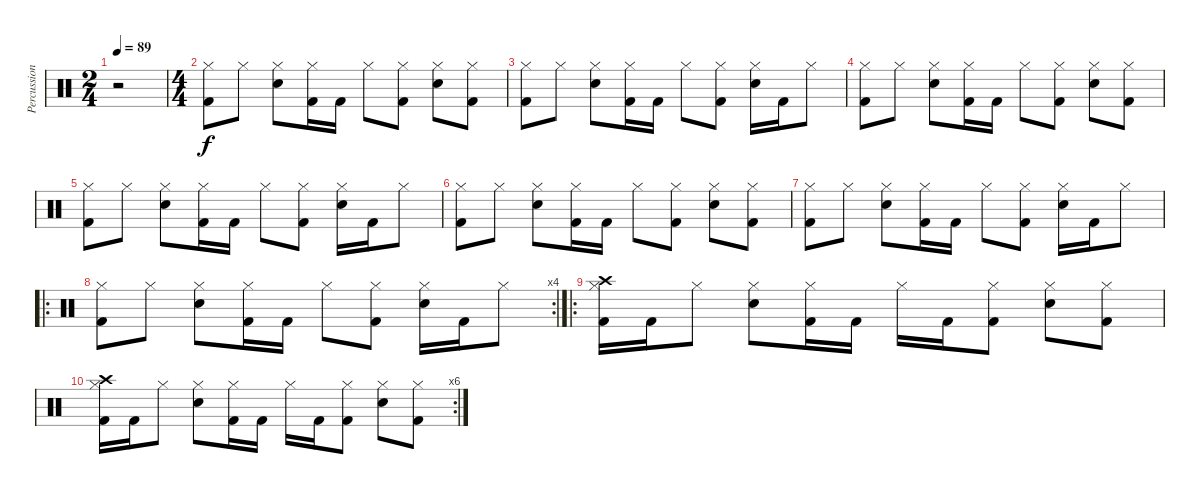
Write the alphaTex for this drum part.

\track ("Percussion" "Percussion") {instrument percussion}
\staff {score}
\articulation defaults
\ts (2 4)
\tempo 89
\clef neutral
\ks c
r.2{dy f} |
\ts (4 4)
("Hi-Hat (closed)" "Kick (hit) 2").8 "Hi-Hat (closed)".8 ("Hi-Hat (closed)" "Electric Snare (hit)").8 ("Hi-Hat (closed)" "Kick (hit) 2").16 "Kick (hit) 2".16 "Hi-Hat (closed)".8 ("Hi-Hat (closed)" "Kick (hit) 2").8 ("Hi-Hat (closed)" "Electric Snare (hit)").8 ("Hi-Hat (closed)" "Kick (hit) 2").8 |
("Hi-Hat (closed)" "Kick (hit) 2").8 "Hi-Hat (closed)".8 ("Hi-Hat (closed)" "Electric Snare (hit)").8 ("Hi-Hat (closed)" "Kick (hit) 2").16 "Kick (hit) 2".16 "Hi-Hat (closed)".8 ("Hi-Hat (closed)" "Kick (hit) 2").8 ("Hi-Hat (closed)" "Electric Snare (hit)").16 "Kick (hit) 2".16 "Hi-Hat (closed)".8 |
("Hi-Hat (closed)" "Kick (hit) 2").8 "Hi-Hat (closed)".8 ("Hi-Hat (closed)" "Electric Snare (hit)").8 ("Hi-Hat (closed)" "Kick (hit) 2").16 "Kick (hit) 2".16 "Hi-Hat (closed)".8 ("Hi-Hat (closed)" "Kick (hit) 2").8 ("Hi-Hat (closed)" "Electric Snare (hit)").8 ("Hi-Hat (closed)" "Kick (hit) 2").8 |
("Hi-Hat (closed)" "Kick (hit) 2").8 "Hi-Hat (closed)".8 ("Hi-Hat (closed)" "Electric Snare (hit)").8 ("Hi-Hat (closed)" "Kick (hit) 2").16 "Kick (hit) 2".16 "Hi-Hat (closed)".8 ("Hi-Hat (closed)" "Kick (hit) 2").8 ("Hi-Hat (closed)" "Electric Snare (hit)").16 "Kick (hit) 2".16 "Hi-Hat (closed)".8 |
("Hi-Hat (closed)" "Kick (hit) 2").8 "Hi-Hat (closed)".8 ("Hi-Hat (closed)" "Electric Snare (hit)").8 ("Hi-Hat (closed)" "Kick (hit) 2").16 "Kick (hit) 2".16 "Hi-Hat (closed)".8 ("Hi-Hat (closed)" "Kick (hit) 2").8 ("Hi-Hat (closed)" "Electric Snare (hit)").8 ("Hi-Hat (closed)" "Kick (hit) 2").8 |
("Hi-Hat (closed)" "Kick (hit) 2").8 "Hi-Hat (closed)".8 ("Hi-Hat (closed)" "Electric Snare (hit)").8 ("Hi-Hat (closed)" "Kick (hit) 2").16 "Kick (hit) 2".16 "Hi-Hat (closed)".8 ("Hi-Hat (closed)" "Kick (hit) 2").8 ("Hi-Hat (closed)" "Electric Snare (hit)").16 "Kick (hit) 2".16 "Hi-Hat (closed)".8 |
\ro
\rc 4
("Hi-Hat (closed)" "Kick (hit) 2").8 "Hi-Hat (closed)".8 ("Hi-Hat (closed)" "Electric Snare (hit)").8 ("Hi-Hat (closed)" "Kick (hit) 2").16 "Kick (hit) 2".16 "Hi-Hat (closed)".8 ("Hi-Hat (closed)" "Kick (hit) 2").8 ("Hi-Hat (closed)" "Electric Snare (hit)").16 "Kick (hit) 2".16 "Hi-Hat (closed)".8 |
\ro
("Crash high (hit)" "Hi-Hat (closed)" "Kick (hit) 2").16 "Kick (hit) 2".16 "Hi-Hat (closed)".8 ("Hi-Hat (closed)" "Snare (hit) 2").8 ("Hi-Hat (closed)" "Kick (hit) 2").16 "Kick (hit) 2".16 "Hi-Hat (closed)".16 "Kick (hit) 2".16 ("Hi-Hat (closed)" "Kick (hit) 2").8 ("Hi-Hat (closed)" "Snare (hit) 2").8 ("Hi-Hat (closed)" "Kick (hit) 2").8 |
\rc 6
("Crash high (hit)" "Hi-Hat (closed)" "Kick (hit) 2").16 "Kick (hit) 2".16 "Hi-Hat (closed)".8 ("Hi-Hat (closed)" "Snare (hit) 2").8 ("Hi-Hat (closed)" "Kick (hit) 2").16 "Kick (hit) 2".16 "Hi-Hat (closed)".16 "Kick (hit) 2".16 ("Hi-Hat (closed)" "Kick (hit) 2").8 ("Hi-Hat (closed)" "Snare (hit) 2").8 ("Hi-Hat (closed)" "Kick (hit) 2").8
